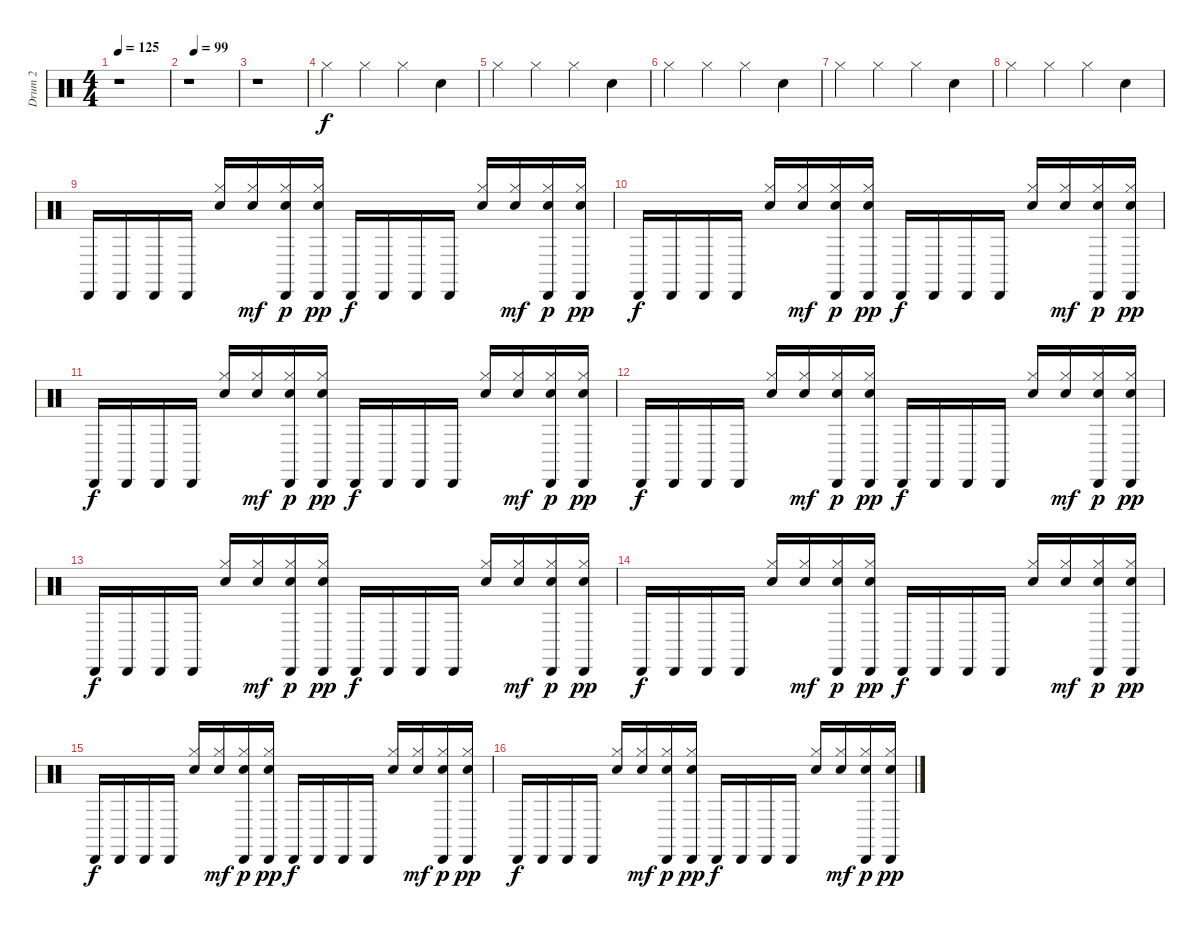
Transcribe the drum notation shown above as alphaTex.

\track ("Drum 2" "Drum 2") {instrument percussion}
\staff {score}
\articulation defaults
\ts (4 4)
\tempo 125
\clef neutral
\ks c
r.1{dy f} |
\tempo (99 0.125)
r.1 |
r.1 |
"Hi-Hat (closed)".4 "Hi-Hat (closed)".4 "Hi-Hat (closed)".4 "Electric Snare (hit)".4 |
"Hi-Hat (closed)".4 "Hi-Hat (closed)".4 "Hi-Hat (closed)".4 "Electric Snare (hit)".4 |
"Hi-Hat (closed)".4 "Hi-Hat (closed)".4 "Hi-Hat (closed)".4 "Electric Snare (hit)".4 |
"Hi-Hat (closed)".4 "Hi-Hat (closed)".4 "Hi-Hat (closed)".4 "Electric Snare (hit)".4 |
"Hi-Hat (closed)".4 "Hi-Hat (closed)".4 "Hi-Hat (closed)".4 "Electric Snare (hit)".4 |
"Cabasa (hit)".16 "Cabasa (hit)".16 "Cabasa (hit)".16 "Cabasa (hit)".16 ("Electric Snare (hit)" "Hi-Hat (closed)").16 ("Electric Snare (hit)" "Hi-Hat (closed)").16{dy mf} ("Electric Snare (hit)" "Hi-Hat (closed)" "Cabasa (hit)").16{dy p} ("Electric Snare (hit)" "Hi-Hat (closed)" "Cabasa (hit)").16{dy pp} "Cabasa (hit)".16{dy f} "Cabasa (hit)".16 "Cabasa (hit)".16 "Cabasa (hit)".16 ("Electric Snare (hit)" "Hi-Hat (closed)").16 ("Electric Snare (hit)" "Hi-Hat (closed)").16{dy mf} ("Electric Snare (hit)" "Hi-Hat (closed)" "Cabasa (hit)").16{dy p} ("Electric Snare (hit)" "Hi-Hat (closed)" "Cabasa (hit)").16{dy pp} |
"Cabasa (hit)".16{dy f} "Cabasa (hit)".16 "Cabasa (hit)".16 "Cabasa (hit)".16 ("Electric Snare (hit)" "Hi-Hat (closed)").16 ("Electric Snare (hit)" "Hi-Hat (closed)").16{dy mf} ("Electric Snare (hit)" "Hi-Hat (closed)" "Cabasa (hit)").16{dy p} ("Electric Snare (hit)" "Hi-Hat (closed)" "Cabasa (hit)").16{dy pp} "Cabasa (hit)".16{dy f} "Cabasa (hit)".16 "Cabasa (hit)".16 "Cabasa (hit)".16 ("Electric Snare (hit)" "Hi-Hat (closed)").16 ("Electric Snare (hit)" "Hi-Hat (closed)").16{dy mf} ("Electric Snare (hit)" "Hi-Hat (closed)" "Cabasa (hit)").16{dy p} ("Electric Snare (hit)" "Hi-Hat (closed)" "Cabasa (hit)").16{dy pp} |
"Cabasa (hit)".16{dy f} "Cabasa (hit)".16 "Cabasa (hit)".16 "Cabasa (hit)".16 ("Electric Snare (hit)" "Hi-Hat (closed)").16 ("Electric Snare (hit)" "Hi-Hat (closed)").16{dy mf} ("Electric Snare (hit)" "Hi-Hat (closed)" "Cabasa (hit)").16{dy p} ("Electric Snare (hit)" "Hi-Hat (closed)" "Cabasa (hit)").16{dy pp} "Cabasa (hit)".16{dy f} "Cabasa (hit)".16 "Cabasa (hit)".16 "Cabasa (hit)".16 ("Electric Snare (hit)" "Hi-Hat (closed)").16 ("Electric Snare (hit)" "Hi-Hat (closed)").16{dy mf} ("Electric Snare (hit)" "Hi-Hat (closed)" "Cabasa (hit)").16{dy p} ("Electric Snare (hit)" "Hi-Hat (closed)" "Cabasa (hit)").16{dy pp} |
"Cabasa (hit)".16{dy f} "Cabasa (hit)".16 "Cabasa (hit)".16 "Cabasa (hit)".16 ("Electric Snare (hit)" "Hi-Hat (closed)").16 ("Electric Snare (hit)" "Hi-Hat (closed)").16{dy mf} ("Electric Snare (hit)" "Hi-Hat (closed)" "Cabasa (hit)").16{dy p} ("Electric Snare (hit)" "Hi-Hat (closed)" "Cabasa (hit)").16{dy pp} "Cabasa (hit)".16{dy f} "Cabasa (hit)".16 "Cabasa (hit)".16 "Cabasa (hit)".16 ("Electric Snare (hit)" "Hi-Hat (closed)").16 ("Electric Snare (hit)" "Hi-Hat (closed)").16{dy mf} ("Electric Snare (hit)" "Hi-Hat (closed)" "Cabasa (hit)").16{dy p} ("Electric Snare (hit)" "Hi-Hat (closed)" "Cabasa (hit)").16{dy pp} |
"Cabasa (hit)".16{dy f} "Cabasa (hit)".16 "Cabasa (hit)".16 "Cabasa (hit)".16 ("Electric Snare (hit)" "Hi-Hat (closed)").16 ("Electric Snare (hit)" "Hi-Hat (closed)").16{dy mf} ("Electric Snare (hit)" "Hi-Hat (closed)" "Cabasa (hit)").16{dy p} ("Electric Snare (hit)" "Hi-Hat (closed)" "Cabasa (hit)").16{dy pp} "Cabasa (hit)".16{dy f} "Cabasa (hit)".16 "Cabasa (hit)".16 "Cabasa (hit)".16 ("Electric Snare (hit)" "Hi-Hat (closed)").16 ("Electric Snare (hit)" "Hi-Hat (closed)").16{dy mf} ("Electric Snare (hit)" "Hi-Hat (closed)" "Cabasa (hit)").16{dy p} ("Electric Snare (hit)" "Hi-Hat (closed)" "Cabasa (hit)").16{dy pp} |
"Cabasa (hit)".16{dy f} "Cabasa (hit)".16 "Cabasa (hit)".16 "Cabasa (hit)".16 ("Electric Snare (hit)" "Hi-Hat (closed)").16 ("Electric Snare (hit)" "Hi-Hat (closed)").16{dy mf} ("Electric Snare (hit)" "Hi-Hat (closed)" "Cabasa (hit)").16{dy p} ("Electric Snare (hit)" "Hi-Hat (closed)" "Cabasa (hit)").16{dy pp} "Cabasa (hit)".16{dy f} "Cabasa (hit)".16 "Cabasa (hit)".16 "Cabasa (hit)".16 ("Electric Snare (hit)" "Hi-Hat (closed)").16 ("Electric Snare (hit)" "Hi-Hat (closed)").16{dy mf} ("Electric Snare (hit)" "Hi-Hat (closed)" "Cabasa (hit)").16{dy p} ("Electric Snare (hit)" "Hi-Hat (closed)" "Cabasa (hit)").16{dy pp} |
"Cabasa (hit)".16{dy f} "Cabasa (hit)".16 "Cabasa (hit)".16 "Cabasa (hit)".16 ("Electric Snare (hit)" "Hi-Hat (closed)").16 ("Electric Snare (hit)" "Hi-Hat (closed)").16{dy mf} ("Electric Snare (hit)" "Hi-Hat (closed)" "Cabasa (hit)").16{dy p} ("Electric Snare (hit)" "Hi-Hat (closed)" "Cabasa (hit)").16{dy pp} "Cabasa (hit)".16{dy f} "Cabasa (hit)".16 "Cabasa (hit)".16 "Cabasa (hit)".16 ("Electric Snare (hit)" "Hi-Hat (closed)").16 ("Electric Snare (hit)" "Hi-Hat (closed)").16{dy mf} ("Electric Snare (hit)" "Hi-Hat (closed)" "Cabasa (hit)").16{dy p} ("Electric Snare (hit)" "Hi-Hat (closed)" "Cabasa (hit)").16{dy pp} |
"Cabasa (hit)".16{dy f} "Cabasa (hit)".16 "Cabasa (hit)".16 "Cabasa (hit)".16 ("Electric Snare (hit)" "Hi-Hat (closed)").16 ("Electric Snare (hit)" "Hi-Hat (closed)").16{dy mf} ("Electric Snare (hit)" "Hi-Hat (closed)" "Cabasa (hit)").16{dy p} ("Electric Snare (hit)" "Hi-Hat (closed)" "Cabasa (hit)").16{dy pp} "Cabasa (hit)".16{dy f} "Cabasa (hit)".16 "Cabasa (hit)".16 "Cabasa (hit)".16 ("Electric Snare (hit)" "Hi-Hat (closed)").16 ("Electric Snare (hit)" "Hi-Hat (closed)").16{dy mf} ("Electric Snare (hit)" "Hi-Hat (closed)" "Cabasa (hit)").16{dy p} ("Electric Snare (hit)" "Hi-Hat (closed)" "Cabasa (hit)").16{dy pp}
